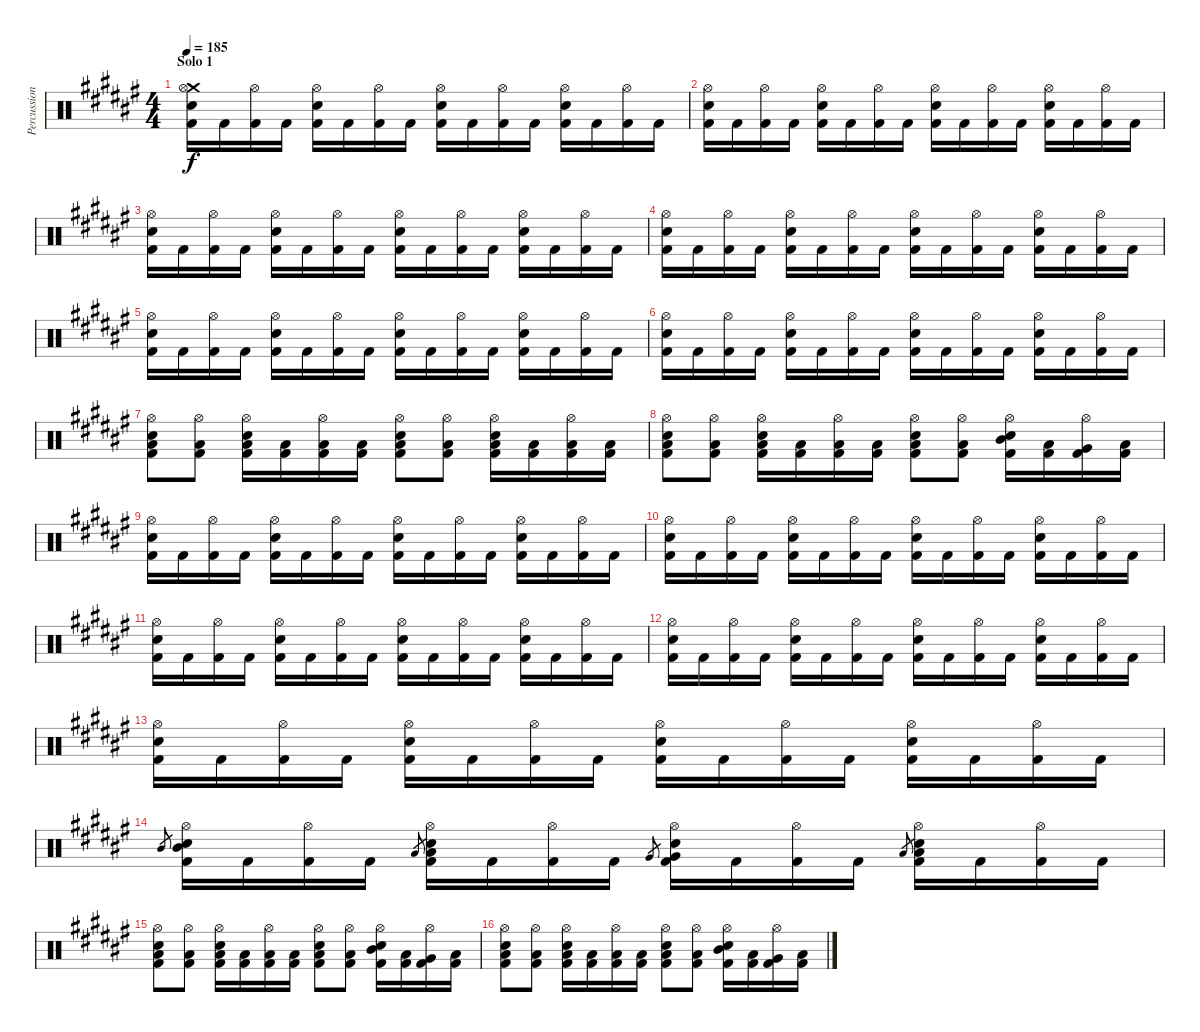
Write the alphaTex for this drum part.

\track ("Percussion" "Percussion") {instrument percussion}
\staff {score}
\articulation defaults
\ts (4 4)
\section ("" "Solo 1")
\tempo 185
\clef neutral
\ks d#minor
("Crash medium (hit)" "Hi-Hat (open)" "Electric Snare (hit)" "Kick (hit) 2").16{dy f} "Kick (hit) 2".16 ("Hi-Hat (open)" "Kick (hit) 2").16 "Kick (hit) 2".16 ("Hi-Hat (open)" "Electric Snare (hit)" "Kick (hit) 2").16 "Kick (hit) 2".16 ("Hi-Hat (open)" "Kick (hit) 2").16 "Kick (hit) 2".16 ("Hi-Hat (open)" "Electric Snare (hit)" "Kick (hit) 2").16 "Kick (hit) 2".16 ("Hi-Hat (open)" "Kick (hit) 2").16 "Kick (hit) 2".16 ("Hi-Hat (open)" "Electric Snare (hit)" "Kick (hit) 2").16 "Kick (hit) 2".16 ("Hi-Hat (open)" "Kick (hit) 2").16 "Kick (hit) 2".16 |
("Hi-Hat (open)" "Electric Snare (hit)" "Kick (hit) 2").16 "Kick (hit) 2".16 ("Hi-Hat (open)" "Kick (hit) 2").16 "Kick (hit) 2".16 ("Hi-Hat (open)" "Electric Snare (hit)" "Kick (hit) 2").16 "Kick (hit) 2".16 ("Hi-Hat (open)" "Kick (hit) 2").16 "Kick (hit) 2".16 ("Hi-Hat (open)" "Electric Snare (hit)" "Kick (hit) 2").16 "Kick (hit) 2".16 ("Hi-Hat (open)" "Kick (hit) 2").16 "Kick (hit) 2".16 ("Hi-Hat (open)" "Electric Snare (hit)" "Kick (hit) 2").16 "Kick (hit) 2".16 ("Hi-Hat (open)" "Kick (hit) 2").16 "Kick (hit) 2".16 |
("Hi-Hat (open)" "Electric Snare (hit)" "Kick (hit) 2").16 "Kick (hit) 2".16 ("Hi-Hat (open)" "Kick (hit) 2").16 "Kick (hit) 2".16 ("Hi-Hat (open)" "Electric Snare (hit)" "Kick (hit) 2").16 "Kick (hit) 2".16 ("Hi-Hat (open)" "Kick (hit) 2").16 "Kick (hit) 2".16 ("Hi-Hat (open)" "Electric Snare (hit)" "Kick (hit) 2").16 "Kick (hit) 2".16 ("Hi-Hat (open)" "Kick (hit) 2").16 "Kick (hit) 2".16 ("Hi-Hat (open)" "Electric Snare (hit)" "Kick (hit) 2").16 "Kick (hit) 2".16 ("Hi-Hat (open)" "Kick (hit) 2").16 "Kick (hit) 2".16 |
("Hi-Hat (open)" "Electric Snare (hit)" "Kick (hit) 2").16 "Kick (hit) 2".16 ("Hi-Hat (open)" "Kick (hit) 2").16 "Kick (hit) 2".16 ("Hi-Hat (open)" "Electric Snare (hit)" "Kick (hit) 2").16 "Kick (hit) 2".16 ("Hi-Hat (open)" "Kick (hit) 2").16 "Kick (hit) 2".16 ("Hi-Hat (open)" "Electric Snare (hit)" "Kick (hit) 2").16 "Kick (hit) 2".16 ("Hi-Hat (open)" "Kick (hit) 2").16 "Kick (hit) 2".16 ("Hi-Hat (open)" "Electric Snare (hit)" "Kick (hit) 2").16 "Kick (hit) 2".16 ("Hi-Hat (open)" "Kick (hit) 2").16 "Kick (hit) 2".16 |
("Hi-Hat (open)" "Electric Snare (hit)" "Kick (hit) 2").16 "Kick (hit) 2".16 ("Hi-Hat (open)" "Kick (hit) 2").16 "Kick (hit) 2".16 ("Hi-Hat (open)" "Electric Snare (hit)" "Kick (hit) 2").16 "Kick (hit) 2".16 ("Hi-Hat (open)" "Kick (hit) 2").16 "Kick (hit) 2".16 ("Hi-Hat (open)" "Electric Snare (hit)" "Kick (hit) 2").16 "Kick (hit) 2".16 ("Hi-Hat (open)" "Kick (hit) 2").16 "Kick (hit) 2".16 ("Hi-Hat (open)" "Electric Snare (hit)" "Kick (hit) 2").16 "Kick (hit) 2".16 ("Hi-Hat (open)" "Kick (hit) 2").16 "Kick (hit) 2".16 |
("Hi-Hat (open)" "Electric Snare (hit)" "Kick (hit) 2").16 "Kick (hit) 2".16 ("Hi-Hat (open)" "Kick (hit) 2").16 "Kick (hit) 2".16 ("Hi-Hat (open)" "Electric Snare (hit)" "Kick (hit) 2").16 "Kick (hit) 2".16 ("Hi-Hat (open)" "Kick (hit) 2").16 "Kick (hit) 2".16 ("Hi-Hat (open)" "Electric Snare (hit)" "Kick (hit) 2").16 "Kick (hit) 2".16 ("Hi-Hat (open)" "Kick (hit) 2").16 "Kick (hit) 2".16 ("Hi-Hat (open)" "Electric Snare (hit)" "Kick (hit) 2").16 "Kick (hit) 2".16 ("Hi-Hat (open)" "Kick (hit) 2").16 "Kick (hit) 2".16 |
("Hi-Hat (open)" "Low Floor Tom (hit)" "Electric Snare (hit)" "Kick (hit) 2").8 ("Hi-Hat (open)" "Low Floor Tom (hit)" "Kick (hit) 2").8 ("Hi-Hat (open)" "Low Floor Tom (hit)" "Electric Snare (hit)" "Kick (hit) 2").16 ("Low Floor Tom (hit)" "Kick (hit) 2").16 ("Hi-Hat (open)" "Low Floor Tom (hit)" "Kick (hit) 2").16 ("Low Floor Tom (hit)" "Kick (hit) 2").16 ("Hi-Hat (open)" "Low Floor Tom (hit)" "Electric Snare (hit)" "Kick (hit) 2").8 ("Hi-Hat (open)" "Low Floor Tom (hit)" "Kick (hit) 2").8 ("Hi-Hat (open)" "Low Floor Tom (hit)" "Electric Snare (hit)" "Kick (hit) 2").16 ("Low Floor Tom (hit)" "Kick (hit) 2").16 ("Hi-Hat (open)" "Low Floor Tom (hit)" "Kick (hit) 2").16 ("Low Floor Tom (hit)" "Kick (hit) 2").16 |
("Hi-Hat (open)" "Low Floor Tom (hit)" "Electric Snare (hit)" "Kick (hit) 2").8 ("Hi-Hat (open)" "Low Floor Tom (hit)" "Kick (hit) 2").8 ("Hi-Hat (open)" "Low Floor Tom (hit)" "Electric Snare (hit)" "Kick (hit) 2").16 ("Low Floor Tom (hit)" "Kick (hit) 2").16 ("Hi-Hat (open)" "Low Floor Tom (hit)" "Kick (hit) 2").16 ("Low Floor Tom (hit)" "Kick (hit) 2").16 ("Hi-Hat (open)" "Low Floor Tom (hit)" "Electric Snare (hit)" "Kick (hit) 2").8 ("Hi-Hat (open)" "Low Floor Tom (hit)" "Kick (hit) 2").8 ("Hi-Hat (open)" "Mid Tom (hit)" "Electric Snare (hit)" "Kick (hit) 2").16 ("Low Tom (hit)" "Kick (hit) 2").16 ("Hi-Hat (open)" "Very Low Tom (hit)" "Kick (hit) 2").16 ("Low Floor Tom (hit)" "Kick (hit) 2").16 |
("Hi-Hat (open)" "Electric Snare (hit)" "Kick (hit) 2").16 "Kick (hit) 2".16 ("Hi-Hat (open)" "Kick (hit) 2").16 "Kick (hit) 2".16 ("Hi-Hat (open)" "Electric Snare (hit)" "Kick (hit) 2").16 "Kick (hit) 2".16 ("Hi-Hat (open)" "Kick (hit) 2").16 "Kick (hit) 2".16 ("Hi-Hat (open)" "Electric Snare (hit)" "Kick (hit) 2").16 "Kick (hit) 2".16 ("Hi-Hat (open)" "Kick (hit) 2").16 "Kick (hit) 2".16 ("Hi-Hat (open)" "Electric Snare (hit)" "Kick (hit) 2").16 "Kick (hit) 2".16 ("Hi-Hat (open)" "Kick (hit) 2").16 "Kick (hit) 2".16 |
("Hi-Hat (open)" "Electric Snare (hit)" "Kick (hit) 2").16 "Kick (hit) 2".16 ("Hi-Hat (open)" "Kick (hit) 2").16 "Kick (hit) 2".16 ("Hi-Hat (open)" "Electric Snare (hit)" "Kick (hit) 2").16 "Kick (hit) 2".16 ("Hi-Hat (open)" "Kick (hit) 2").16 "Kick (hit) 2".16 ("Hi-Hat (open)" "Electric Snare (hit)" "Kick (hit) 2").16 "Kick (hit) 2".16 ("Hi-Hat (open)" "Kick (hit) 2").16 "Kick (hit) 2".16 ("Hi-Hat (open)" "Electric Snare (hit)" "Kick (hit) 2").16 "Kick (hit) 2".16 ("Hi-Hat (open)" "Kick (hit) 2").16 "Kick (hit) 2".16 |
("Hi-Hat (open)" "Electric Snare (hit)" "Kick (hit) 2").16 "Kick (hit) 2".16 ("Hi-Hat (open)" "Kick (hit) 2").16 "Kick (hit) 2".16 ("Hi-Hat (open)" "Electric Snare (hit)" "Kick (hit) 2").16 "Kick (hit) 2".16 ("Hi-Hat (open)" "Kick (hit) 2").16 "Kick (hit) 2".16 ("Hi-Hat (open)" "Electric Snare (hit)" "Kick (hit) 2").16 "Kick (hit) 2".16 ("Hi-Hat (open)" "Kick (hit) 2").16 "Kick (hit) 2".16 ("Hi-Hat (open)" "Electric Snare (hit)" "Kick (hit) 2").16 "Kick (hit) 2".16 ("Hi-Hat (open)" "Kick (hit) 2").16 "Kick (hit) 2".16 |
("Hi-Hat (open)" "Electric Snare (hit)" "Kick (hit) 2").16 "Kick (hit) 2".16 ("Hi-Hat (open)" "Kick (hit) 2").16 "Kick (hit) 2".16 ("Hi-Hat (open)" "Electric Snare (hit)" "Kick (hit) 2").16 "Kick (hit) 2".16 ("Hi-Hat (open)" "Kick (hit) 2").16 "Kick (hit) 2".16 ("Hi-Hat (open)" "Electric Snare (hit)" "Kick (hit) 2").16 "Kick (hit) 2".16 ("Hi-Hat (open)" "Kick (hit) 2").16 "Kick (hit) 2".16 ("Hi-Hat (open)" "Electric Snare (hit)" "Kick (hit) 2").16 "Kick (hit) 2".16 ("Hi-Hat (open)" "Kick (hit) 2").16 "Kick (hit) 2".16 |
("Hi-Hat (open)" "Electric Snare (hit)" "Kick (hit) 2").16 "Kick (hit) 2".16 ("Hi-Hat (open)" "Kick (hit) 2").16 "Kick (hit) 2".16 ("Hi-Hat (open)" "Electric Snare (hit)" "Kick (hit) 2").16 "Kick (hit) 2".16 ("Hi-Hat (open)" "Kick (hit) 2").16 "Kick (hit) 2".16 ("Hi-Hat (open)" "Electric Snare (hit)" "Kick (hit) 2").16 "Kick (hit) 2".16 ("Hi-Hat (open)" "Kick (hit) 2").16 "Kick (hit) 2".16 ("Hi-Hat (open)" "Electric Snare (hit)" "Kick (hit) 2").16 "Kick (hit) 2".16 ("Hi-Hat (open)" "Kick (hit) 2").16 "Kick (hit) 2".16 |
"Mid Tom (hit)".8{gr} ("Hi-Hat (open)" "Mid Tom (hit)" "Electric Snare (hit)" "Kick (hit) 2").16 "Kick (hit) 2".16 ("Hi-Hat (open)" "Kick (hit) 2").16 "Kick (hit) 2".16 "Low Tom (hit)".8{gr} ("Hi-Hat (open)" "Low Tom (hit)" "Electric Snare (hit)" "Kick (hit) 2").16 "Kick (hit) 2".16 ("Hi-Hat (open)" "Kick (hit) 2").16 "Kick (hit) 2".16 "Very Low Tom (hit)".8{gr} ("Hi-Hat (open)" "Very Low Tom (hit)" "Electric Snare (hit)" "Kick (hit) 2").16 "Kick (hit) 2".16 ("Hi-Hat (open)" "Kick (hit) 2").16 "Kick (hit) 2".16 "Low Floor Tom (hit)".8{gr} ("Hi-Hat (open)" "Low Floor Tom (hit)" "Electric Snare (hit)" "Kick (hit) 2").16 "Kick (hit) 2".16 ("Hi-Hat (open)" "Kick (hit) 2").16 "Kick (hit) 2".16 |
("Hi-Hat (open)" "Low Floor Tom (hit)" "Electric Snare (hit)" "Kick (hit) 2").8 ("Hi-Hat (open)" "Low Floor Tom (hit)" "Kick (hit) 2").8 ("Hi-Hat (open)" "Low Floor Tom (hit)" "Electric Snare (hit)" "Kick (hit) 2").16 ("Low Floor Tom (hit)" "Kick (hit) 2").16 ("Hi-Hat (open)" "Low Floor Tom (hit)" "Kick (hit) 2").16 ("Low Floor Tom (hit)" "Kick (hit) 2").16 ("Hi-Hat (open)" "Low Floor Tom (hit)" "Electric Snare (hit)" "Kick (hit) 2").8 ("Hi-Hat (open)" "Low Floor Tom (hit)" "Kick (hit) 2").8 ("Hi-Hat (open)" "Mid Tom (hit)" "Electric Snare (hit)" "Kick (hit) 2").16 ("Low Tom (hit)" "Kick (hit) 2").16 ("Hi-Hat (open)" "Very Low Tom (hit)" "Kick (hit) 2").16 ("Low Floor Tom (hit)" "Kick (hit) 2").16 |
("Hi-Hat (open)" "Low Floor Tom (hit)" "Electric Snare (hit)" "Kick (hit) 2").8 ("Hi-Hat (open)" "Low Floor Tom (hit)" "Kick (hit) 2").8 ("Hi-Hat (open)" "Low Floor Tom (hit)" "Electric Snare (hit)" "Kick (hit) 2").16 ("Low Floor Tom (hit)" "Kick (hit) 2").16 ("Hi-Hat (open)" "Low Floor Tom (hit)" "Kick (hit) 2").16 ("Low Floor Tom (hit)" "Kick (hit) 2").16 ("Hi-Hat (open)" "Low Floor Tom (hit)" "Electric Snare (hit)" "Kick (hit) 2").8 ("Hi-Hat (open)" "Low Floor Tom (hit)" "Kick (hit) 2").8 ("Hi-Hat (open)" "Mid Tom (hit)" "Electric Snare (hit)" "Kick (hit) 2").16 ("Low Tom (hit)" "Kick (hit) 2").16 ("Hi-Hat (open)" "Very Low Tom (hit)" "Kick (hit) 2").16 ("Low Floor Tom (hit)" "Kick (hit) 2").16
